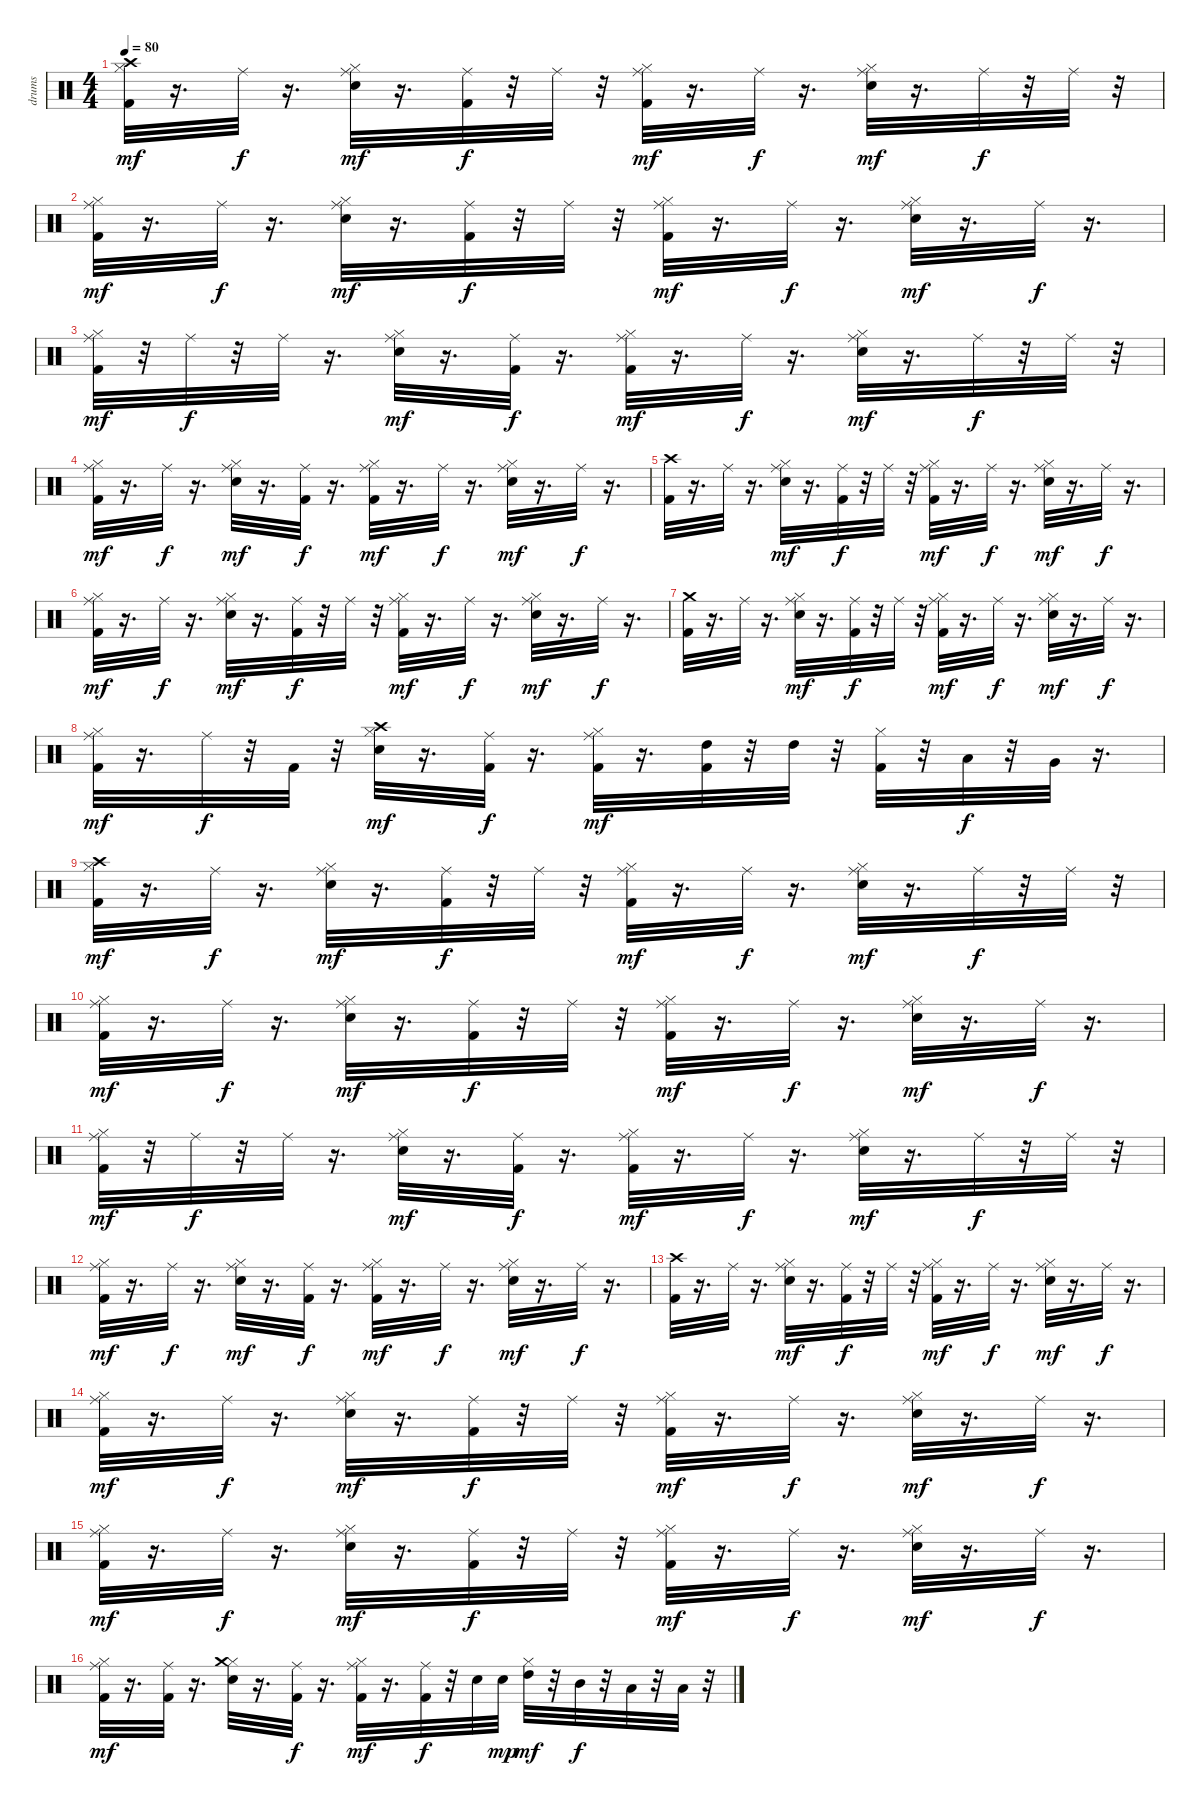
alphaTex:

\track ("drums" "drums") {instrument percussion}
\staff {score}
\articulation defaults
\ts (4 4)
\tempo 80
\clef neutral
\ks c
("Hi-Hat (closed)" "Kick (hit) 2" "Crash high (hit)").32{dy mf} r.16{d} "Ride (middle)".32{dy f} r.16{d} ("Hi-Hat (closed)" "Ride (middle)" "Electric Snare (hit)").32{dy mf} r.16{d} ("Ride (middle)" "Kick (hit) 2").32{dy f} r.32 "Ride (middle)".32 r.32 ("Hi-Hat (closed)" "Ride (middle)" "Kick (hit) 2").32{dy mf} r.16{d} "Ride (middle)".32{dy f} r.16{d} ("Hi-Hat (closed)" "Ride (middle)" "Electric Snare (hit)").32{dy mf} r.16{d} "Ride (middle)".32{dy f} r.32 "Ride (middle)".32 r.32 |
("Hi-Hat (closed)" "Ride (middle)" "Kick (hit) 2").32{dy mf} r.16{d} "Ride (middle)".32{dy f} r.16{d} ("Hi-Hat (closed)" "Ride (middle)" "Electric Snare (hit)").32{dy mf} r.16{d} ("Ride (middle)" "Kick (hit) 2").32{dy f} r.32 "Ride (middle)".32 r.32 ("Hi-Hat (closed)" "Ride (middle)" "Kick (hit) 2").32{dy mf} r.16{d} "Ride (middle)".32{dy f} r.16{d} ("Hi-Hat (closed)" "Ride (middle)" "Electric Snare (hit)").32{dy mf} r.16{d} "Ride (middle)".32{dy f} r.16{d} |
("Ride (middle)" "Hi-Hat (closed)" "Kick (hit) 2").32{dy mf} r.32 "Ride (middle)".32{dy f} r.32 "Ride (middle)".32 r.16{d} ("Ride (middle)" "Hi-Hat (closed)" "Electric Snare (hit)").32{dy mf} r.16{d} ("Ride (middle)" "Kick (hit) 2").32{dy f} r.16{d} ("Ride (middle)" "Hi-Hat (closed)" "Kick (hit) 2").32{dy mf} r.16{d} "Ride (middle)".32{dy f} r.16{d} ("Ride (middle)" "Hi-Hat (closed)" "Electric Snare (hit)").32{dy mf} r.16{d} "Ride (middle)".32{dy f} r.32 "Ride (middle)".32 r.32 |
("Ride (middle)" "Hi-Hat (closed)" "Kick (hit) 2").32{dy mf} r.16{d} "Ride (middle)".32{dy f} r.16{d} ("Ride (middle)" "Hi-Hat (closed)" "Electric Snare (hit)").32{dy mf} r.16{d} ("Ride (middle)" "Kick (hit) 2").32{dy f} r.16{d} ("Ride (middle)" "Hi-Hat (closed)" "Kick (hit) 2").32{dy mf} r.16{d} "Ride (middle)".32{dy f} r.16{d} ("Ride (middle)" "Hi-Hat (closed)" "Electric Snare (hit)").32{dy mf} r.16{d} "Ride (middle)".32{dy f} r.16{d} |
("Crash high (hit)" "Kick (hit) 2").32 r.16{d} "Ride (middle)".32 r.16{d} ("Ride (middle)" "Hi-Hat (closed)" "Electric Snare (hit)").32{dy mf} r.16{d} ("Ride (middle)" "Kick (hit) 2").32{dy f} r.32 "Ride (middle)".32 r.32 ("Ride (middle)" "Hi-Hat (closed)" "Kick (hit) 2").32{dy mf} r.16{d} "Ride (middle)".32{dy f} r.16{d} ("Ride (middle)" "Hi-Hat (closed)" "Electric Snare (hit)").32{dy mf} r.16{d} "Ride (middle)".32{dy f} r.16{d} |
("Ride (middle)" "Hi-Hat (closed)" "Kick (hit) 2").32{dy mf} r.16{d} "Ride (middle)".32{dy f} r.16{d} ("Ride (middle)" "Hi-Hat (closed)" "Electric Snare (hit)").32{dy mf} r.16{d} ("Ride (middle)" "Kick (hit) 2").32{dy f} r.32 "Ride (middle)".32 r.32 ("Ride (middle)" "Hi-Hat (closed)" "Kick (hit) 2").32{dy mf} r.16{d} "Ride (middle)".32{dy f} r.16{d} ("Ride (middle)" "Hi-Hat (closed)" "Electric Snare (hit)").32{dy mf} r.16{d} "Ride (middle)".32{dy f} r.16{d} |
("Crash medium (hit)" "Kick (hit) 2").32 r.16{d} "Ride (middle)".32 r.16{d} ("Ride (middle)" "Hi-Hat (closed)" "Electric Snare (hit)").32{dy mf} r.16{d} ("Ride (middle)" "Kick (hit) 2").32{dy f} r.32 "Ride (middle)".32 r.32 ("Hi-Hat (closed)" "Ride (middle)" "Kick (hit) 2").32{dy mf} r.16{d} "Ride (middle)".32{dy f} r.16{d} ("Ride (middle)" "Electric Snare (hit)" "Hi-Hat (closed)").32{dy mf} r.16{d} "Ride (middle)".32{dy f} r.16{d} |
("Ride (middle)" "Hi-Hat (closed)" "Kick (hit) 2").32{dy mf} r.16{d} "Ride (middle)".32{dy f} r.32 "Kick (hit) 2".32 r.32 ("Hi-Hat (closed)" "Electric Snare (hit)" "Crash high (hit)").32{dy mf} r.16{d} ("Ride (middle)" "Kick (hit) 2").32{dy f} r.16{d} ("Ride (middle)" "Hi-Hat (closed)" "Kick (hit) 2").32{dy mf} r.16{d} ("Kick (hit) 2" "High Tom (hit)").32 r.32 "High Tom (hit)".32 r.32 ("Kick (hit) 2" "Hi-Hat (closed)").32 r.32 "Low Tom (hit)".32{dy f} r.32 "Very Low Tom (hit)".32 r.16{d} |
("Hi-Hat (closed)" "Kick (hit) 2" "Crash high (hit)").32{dy mf} r.16{d} "Ride (middle)".32{dy f} r.16{d} ("Hi-Hat (closed)" "Ride (middle)" "Electric Snare (hit)").32{dy mf} r.16{d} ("Ride (middle)" "Kick (hit) 2").32{dy f} r.32 "Ride (middle)".32 r.32 ("Hi-Hat (closed)" "Ride (middle)" "Kick (hit) 2").32{dy mf} r.16{d} "Ride (middle)".32{dy f} r.16{d} ("Hi-Hat (closed)" "Ride (middle)" "Electric Snare (hit)").32{dy mf} r.16{d} "Ride (middle)".32{dy f} r.32 "Ride (middle)".32 r.32 |
("Hi-Hat (closed)" "Ride (middle)" "Kick (hit) 2").32{dy mf} r.16{d} "Ride (middle)".32{dy f} r.16{d} ("Hi-Hat (closed)" "Ride (middle)" "Electric Snare (hit)").32{dy mf} r.16{d} ("Ride (middle)" "Kick (hit) 2").32{dy f} r.32 "Ride (middle)".32 r.32 ("Hi-Hat (closed)" "Ride (middle)" "Kick (hit) 2").32{dy mf} r.16{d} "Ride (middle)".32{dy f} r.16{d} ("Hi-Hat (closed)" "Ride (middle)" "Electric Snare (hit)").32{dy mf} r.16{d} "Ride (middle)".32{dy f} r.16{d} |
("Ride (middle)" "Hi-Hat (closed)" "Kick (hit) 2").32{dy mf} r.32 "Ride (middle)".32{dy f} r.32 "Ride (middle)".32 r.16{d} ("Ride (middle)" "Hi-Hat (closed)" "Electric Snare (hit)").32{dy mf} r.16{d} ("Ride (middle)" "Kick (hit) 2").32{dy f} r.16{d} ("Ride (middle)" "Hi-Hat (closed)" "Kick (hit) 2").32{dy mf} r.16{d} "Ride (middle)".32{dy f} r.16{d} ("Ride (middle)" "Hi-Hat (closed)" "Electric Snare (hit)").32{dy mf} r.16{d} "Ride (middle)".32{dy f} r.32 "Ride (middle)".32 r.32 |
("Ride (middle)" "Hi-Hat (closed)" "Kick (hit) 2").32{dy mf} r.16{d} "Ride (middle)".32{dy f} r.16{d} ("Ride (middle)" "Hi-Hat (closed)" "Electric Snare (hit)").32{dy mf} r.16{d} ("Ride (middle)" "Kick (hit) 2").32{dy f} r.16{d} ("Ride (middle)" "Hi-Hat (closed)" "Kick (hit) 2").32{dy mf} r.16{d} "Ride (middle)".32{dy f} r.16{d} ("Ride (middle)" "Hi-Hat (closed)" "Electric Snare (hit)").32{dy mf} r.16{d} "Ride (middle)".32{dy f} r.16{d} |
("Crash high (hit)" "Kick (hit) 2").32 r.16{d} "Ride (middle)".32 r.16{d} ("Ride (middle)" "Hi-Hat (closed)" "Electric Snare (hit)").32{dy mf} r.16{d} ("Ride (middle)" "Kick (hit) 2").32{dy f} r.32 "Ride (middle)".32 r.32 ("Ride (middle)" "Hi-Hat (closed)" "Kick (hit) 2").32{dy mf} r.16{d} "Ride (middle)".32{dy f} r.16{d} ("Ride (middle)" "Hi-Hat (closed)" "Electric Snare (hit)").32{dy mf} r.16{d} "Ride (middle)".32{dy f} r.16{d} |
("Ride (middle)" "Hi-Hat (closed)" "Kick (hit) 2").32{dy mf} r.16{d} "Ride (middle)".32{dy f} r.16{d} ("Ride (middle)" "Hi-Hat (closed)" "Electric Snare (hit)").32{dy mf} r.16{d} ("Ride (middle)" "Kick (hit) 2").32{dy f} r.32 "Ride (middle)".32 r.32 ("Ride (middle)" "Hi-Hat (closed)" "Kick (hit) 2").32{dy mf} r.16{d} "Ride (middle)".32{dy f} r.16{d} ("Ride (middle)" "Hi-Hat (closed)" "Electric Snare (hit)").32{dy mf} r.16{d} "Ride (middle)".32{dy f} r.16{d} |
("Hi-Hat (closed)" "Ride (middle)" "Kick (hit) 2").32{dy mf} r.16{d} "Ride (middle)".32{dy f} r.16{d} ("Ride (middle)" "Hi-Hat (closed)" "Electric Snare (hit)").32{dy mf} r.16{d} ("Ride (middle)" "Kick (hit) 2").32{dy f} r.32 "Ride (middle)".32 r.32 ("Hi-Hat (closed)" "Ride (middle)" "Kick (hit) 2").32{dy mf} r.16{d} "Ride (middle)".32{dy f} r.16{d} ("Hi-Hat (closed)" "Ride (middle)" "Electric Snare (hit)").32{dy mf} r.16{d} "Ride (middle)".32{dy f} r.16{d} |
("Ride (middle)" "Hi-Hat (closed)" "Kick (hit) 2").32{dy mf} r.16{d} ("Kick (hit) 2" "Ride (middle)").32 r.16{d} ("Hi-Hat (closed)" "Electric Snare (hit)" "Crash medium (hit)").32 r.16{d} ("Ride (middle)" "Kick (hit) 2").32{dy f} r.16{d} ("Ride (middle)" "Kick (hit) 2" "Hi-Hat (closed)").32{dy mf} r.16{d} ("Ride (middle)" "Kick (hit) 2").32{dy f} r.32 "Electric Snare (hit)".32 "Electric Snare (hit)".32{dy mp} ("High Tom (hit)" "Hi-Hat (closed)").32{dy mf} r.32 "Mid Tom (hit)".32{dy f} r.32 "Low Tom (hit)".32 r.32 "Low Floor Tom (hit)".32 r.32
